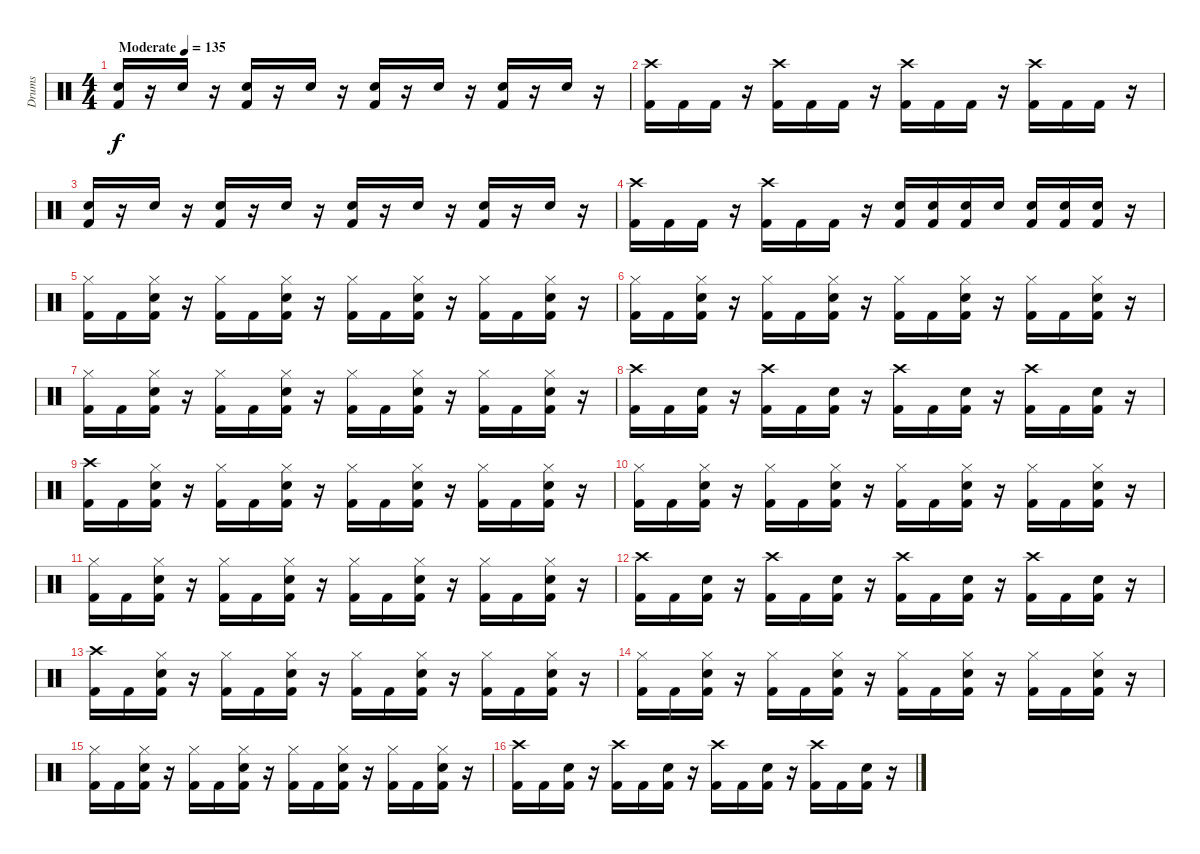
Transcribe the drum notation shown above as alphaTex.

\track ("Drums" "Drums") {instrument percussion}
\staff {score}
\articulation defaults
\ts (4 4)
\tempo (135 "Moderate")
\clef neutral
\ks c
("Snare (hit) 2" "Kick (hit) 2").16{dy f} r.16 "Snare (hit) 2".16 r.16 ("Snare (hit) 2" "Kick (hit) 2").16 r.16 "Snare (hit) 2".16 r.16 ("Snare (hit) 2" "Kick (hit) 2").16 r.16 "Snare (hit) 2".16 r.16 ("Snare (hit) 2" "Kick (hit) 2").16 r.16 "Snare (hit) 2".16 r.16 |
("Crash high (hit)" "Kick (hit) 2").16 "Kick (hit) 2".16 "Kick (hit) 2".16 r.16 ("Crash high (hit)" "Kick (hit) 2").16 "Kick (hit) 2".16 "Kick (hit) 2".16 r.16 ("Crash high (hit)" "Kick (hit) 2").16 "Kick (hit) 2".16 "Kick (hit) 2".16 r.16 ("Crash high (hit)" "Kick (hit) 2").16 "Kick (hit) 2".16 "Kick (hit) 2".16 r.16 |
("Snare (hit) 2" "Kick (hit) 2").16 r.16 "Snare (hit) 2".16 r.16 ("Snare (hit) 2" "Kick (hit) 2").16 r.16 "Snare (hit) 2".16 r.16 ("Snare (hit) 2" "Kick (hit) 2").16 r.16 "Snare (hit) 2".16 r.16 ("Snare (hit) 2" "Kick (hit) 2").16 r.16 "Snare (hit) 2".16 r.16 |
("Crash high (hit)" "Kick (hit) 2").16 "Kick (hit) 2".16 "Kick (hit) 2".16 r.16 ("Crash high (hit)" "Kick (hit) 2").16 "Kick (hit) 2".16 "Kick (hit) 2".16 r.16 ("Snare (hit) 2" "Kick (hit) 2").16 ("Snare (hit) 2" "Kick (hit) 2").16 ("Snare (hit) 2" "Kick (hit) 2").16 "Snare (hit) 2".16 ("Snare (hit) 2" "Kick (hit) 2").16 ("Snare (hit) 2" "Kick (hit) 2").16 ("Snare (hit) 2" "Kick (hit) 2").16 r.16 |
("Hi-Hat (closed)" "Kick (hit) 2").16 "Kick (hit) 2".16 ("Hi-Hat (closed)" "Snare (hit) 2" "Kick (hit) 2").16 r.16 ("Hi-Hat (closed)" "Kick (hit) 2").16 "Kick (hit) 2".16 ("Hi-Hat (closed)" "Snare (hit) 2" "Kick (hit) 2").16 r.16 ("Hi-Hat (closed)" "Kick (hit) 2").16 "Kick (hit) 2".16 ("Hi-Hat (closed)" "Snare (hit) 2" "Kick (hit) 2").16 r.16 ("Hi-Hat (closed)" "Kick (hit) 2").16 "Kick (hit) 2".16 ("Hi-Hat (closed)" "Snare (hit) 2" "Kick (hit) 2").16 r.16 |
("Hi-Hat (closed)" "Kick (hit) 2").16 "Kick (hit) 2".16 ("Hi-Hat (closed)" "Snare (hit) 2" "Kick (hit) 2").16 r.16 ("Hi-Hat (closed)" "Kick (hit) 2").16 "Kick (hit) 2".16 ("Hi-Hat (closed)" "Snare (hit) 2" "Kick (hit) 2").16 r.16 ("Hi-Hat (closed)" "Kick (hit) 2").16 "Kick (hit) 2".16 ("Hi-Hat (closed)" "Snare (hit) 2" "Kick (hit) 2").16 r.16 ("Hi-Hat (closed)" "Kick (hit) 2").16 "Kick (hit) 2".16 ("Hi-Hat (closed)" "Snare (hit) 2" "Kick (hit) 2").16 r.16 |
("Hi-Hat (closed)" "Kick (hit) 2").16 "Kick (hit) 2".16 ("Hi-Hat (closed)" "Snare (hit) 2" "Kick (hit) 2").16 r.16 ("Hi-Hat (closed)" "Kick (hit) 2").16 "Kick (hit) 2".16 ("Hi-Hat (closed)" "Snare (hit) 2" "Kick (hit) 2").16 r.16 ("Hi-Hat (closed)" "Kick (hit) 2").16 "Kick (hit) 2".16 ("Hi-Hat (closed)" "Snare (hit) 2" "Kick (hit) 2").16 r.16 ("Hi-Hat (closed)" "Kick (hit) 2").16 "Kick (hit) 2".16 ("Hi-Hat (closed)" "Snare (hit) 2" "Kick (hit) 2").16 r.16 |
("Crash high (hit)" "Kick (hit) 2").16 "Kick (hit) 2".16 ("Snare (hit) 2" "Kick (hit) 2").16 r.16 ("Crash high (hit)" "Kick (hit) 2").16 "Kick (hit) 2".16 ("Snare (hit) 2" "Kick (hit) 2").16 r.16 ("Crash high (hit)" "Kick (hit) 2").16 "Kick (hit) 2".16 ("Snare (hit) 2" "Kick (hit) 2").16 r.16 ("Crash high (hit)" "Kick (hit) 2").16 "Kick (hit) 2".16 ("Snare (hit) 2" "Kick (hit) 2").16 r.16 |
("Crash high (hit)" "Kick (hit) 2").16 "Kick (hit) 2".16 ("Hi-Hat (closed)" "Snare (hit) 2" "Kick (hit) 2").16 r.16 ("Hi-Hat (closed)" "Kick (hit) 2").16 "Kick (hit) 2".16 ("Hi-Hat (closed)" "Snare (hit) 2" "Kick (hit) 2").16 r.16 ("Hi-Hat (closed)" "Kick (hit) 2").16 "Kick (hit) 2".16 ("Hi-Hat (closed)" "Snare (hit) 2" "Kick (hit) 2").16 r.16 ("Hi-Hat (closed)" "Kick (hit) 2").16 "Kick (hit) 2".16 ("Hi-Hat (closed)" "Snare (hit) 2" "Kick (hit) 2").16 r.16 |
("Hi-Hat (closed)" "Kick (hit) 2").16 "Kick (hit) 2".16 ("Hi-Hat (closed)" "Snare (hit) 2" "Kick (hit) 2").16 r.16 ("Hi-Hat (closed)" "Kick (hit) 2").16 "Kick (hit) 2".16 ("Hi-Hat (closed)" "Snare (hit) 2" "Kick (hit) 2").16 r.16 ("Hi-Hat (closed)" "Kick (hit) 2").16 "Kick (hit) 2".16 ("Hi-Hat (closed)" "Snare (hit) 2" "Kick (hit) 2").16 r.16 ("Hi-Hat (closed)" "Kick (hit) 2").16 "Kick (hit) 2".16 ("Hi-Hat (closed)" "Snare (hit) 2" "Kick (hit) 2").16 r.16 |
("Hi-Hat (closed)" "Kick (hit) 2").16 "Kick (hit) 2".16 ("Hi-Hat (closed)" "Snare (hit) 2" "Kick (hit) 2").16 r.16 ("Hi-Hat (closed)" "Kick (hit) 2").16 "Kick (hit) 2".16 ("Hi-Hat (closed)" "Snare (hit) 2" "Kick (hit) 2").16 r.16 ("Hi-Hat (closed)" "Kick (hit) 2").16 "Kick (hit) 2".16 ("Hi-Hat (closed)" "Snare (hit) 2" "Kick (hit) 2").16 r.16 ("Hi-Hat (closed)" "Kick (hit) 2").16 "Kick (hit) 2".16 ("Hi-Hat (closed)" "Snare (hit) 2" "Kick (hit) 2").16 r.16 |
("Crash high (hit)" "Kick (hit) 2").16 "Kick (hit) 2".16 ("Snare (hit) 2" "Kick (hit) 2").16 r.16 ("Crash high (hit)" "Kick (hit) 2").16 "Kick (hit) 2".16 ("Snare (hit) 2" "Kick (hit) 2").16 r.16 ("Crash high (hit)" "Kick (hit) 2").16 "Kick (hit) 2".16 ("Snare (hit) 2" "Kick (hit) 2").16 r.16 ("Crash high (hit)" "Kick (hit) 2").16 "Kick (hit) 2".16 ("Snare (hit) 2" "Kick (hit) 2").16 r.16 |
("Crash high (hit)" "Kick (hit) 2").16 "Kick (hit) 2".16 ("Hi-Hat (closed)" "Snare (hit) 2" "Kick (hit) 2").16 r.16 ("Hi-Hat (closed)" "Kick (hit) 2").16 "Kick (hit) 2".16 ("Hi-Hat (closed)" "Snare (hit) 2" "Kick (hit) 2").16 r.16 ("Hi-Hat (closed)" "Kick (hit) 2").16 "Kick (hit) 2".16 ("Hi-Hat (closed)" "Snare (hit) 2" "Kick (hit) 2").16 r.16 ("Hi-Hat (closed)" "Kick (hit) 2").16 "Kick (hit) 2".16 ("Hi-Hat (closed)" "Snare (hit) 2" "Kick (hit) 2").16 r.16 |
("Hi-Hat (closed)" "Kick (hit) 2").16 "Kick (hit) 2".16 ("Hi-Hat (closed)" "Snare (hit) 2" "Kick (hit) 2").16 r.16 ("Hi-Hat (closed)" "Kick (hit) 2").16 "Kick (hit) 2".16 ("Hi-Hat (closed)" "Snare (hit) 2" "Kick (hit) 2").16 r.16 ("Hi-Hat (closed)" "Kick (hit) 2").16 "Kick (hit) 2".16 ("Hi-Hat (closed)" "Snare (hit) 2" "Kick (hit) 2").16 r.16 ("Hi-Hat (closed)" "Kick (hit) 2").16 "Kick (hit) 2".16 ("Hi-Hat (closed)" "Snare (hit) 2" "Kick (hit) 2").16 r.16 |
("Hi-Hat (closed)" "Kick (hit) 2").16 "Kick (hit) 2".16 ("Hi-Hat (closed)" "Snare (hit) 2" "Kick (hit) 2").16 r.16 ("Hi-Hat (closed)" "Kick (hit) 2").16 "Kick (hit) 2".16 ("Hi-Hat (closed)" "Snare (hit) 2" "Kick (hit) 2").16 r.16 ("Hi-Hat (closed)" "Kick (hit) 2").16 "Kick (hit) 2".16 ("Hi-Hat (closed)" "Snare (hit) 2" "Kick (hit) 2").16 r.16 ("Hi-Hat (closed)" "Kick (hit) 2").16 "Kick (hit) 2".16 ("Hi-Hat (closed)" "Snare (hit) 2" "Kick (hit) 2").16 r.16 |
("Crash high (hit)" "Kick (hit) 2").16 "Kick (hit) 2".16 ("Snare (hit) 2" "Kick (hit) 2").16 r.16 ("Crash high (hit)" "Kick (hit) 2").16 "Kick (hit) 2".16 ("Snare (hit) 2" "Kick (hit) 2").16 r.16 ("Crash high (hit)" "Kick (hit) 2").16 "Kick (hit) 2".16 ("Snare (hit) 2" "Kick (hit) 2").16 r.16 ("Crash high (hit)" "Kick (hit) 2").16 "Kick (hit) 2".16 ("Snare (hit) 2" "Kick (hit) 2").16 r.16
